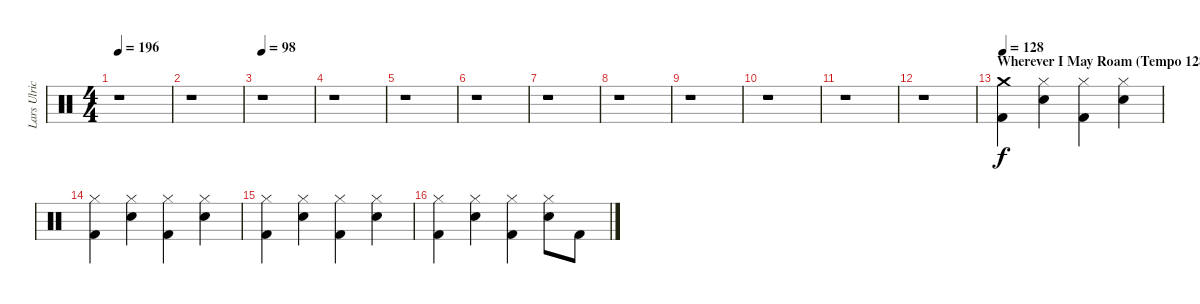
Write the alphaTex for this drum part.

\track ("Lars Ulrich (Drums)" "Lars Ulric") {instrument percussion}
\staff {score}
\articulation defaults
\ts (4 4)
\tempo 196
\clef neutral
\ks c
r.1{dy f} |
r.1 |
\tempo 98
r.1 |
r.1 |
r.1 |
r.1 |
r.1 |
r.1 |
r.1 |
r.1 |
r.1 |
r.1 |
\section ("" "Wherever I May Roam (Tempo 128)")
\tempo 128
("Kick (hit) 2" "Crash medium (hit)").4 ("Hi-Hat (closed)" "Snare (hit) 2").4 ("Hi-Hat (closed)" "Kick (hit) 2").4 ("Snare (hit) 2" "Hi-Hat (closed)").4 |
("Hi-Hat (closed)" "Kick (hit) 2").4 ("Snare (hit) 2" "Hi-Hat (closed)").4 ("Kick (hit) 2" "Hi-Hat (closed)").4 ("Snare (hit) 2" "Hi-Hat (closed)").4 |
("Hi-Hat (closed)" "Kick (hit) 2").4 ("Snare (hit) 2" "Hi-Hat (closed)").4 ("Kick (hit) 2" "Hi-Hat (closed)").4 ("Snare (hit) 2" "Hi-Hat (closed)").4 |
("Kick (hit) 2" "Hi-Hat (closed)").4 ("Snare (hit) 2" "Hi-Hat (closed)").4 ("Kick (hit) 2" "Hi-Hat (closed)").4 ("Snare (hit) 2" "Hi-Hat (closed)").8 "Kick (hit) 2".8
